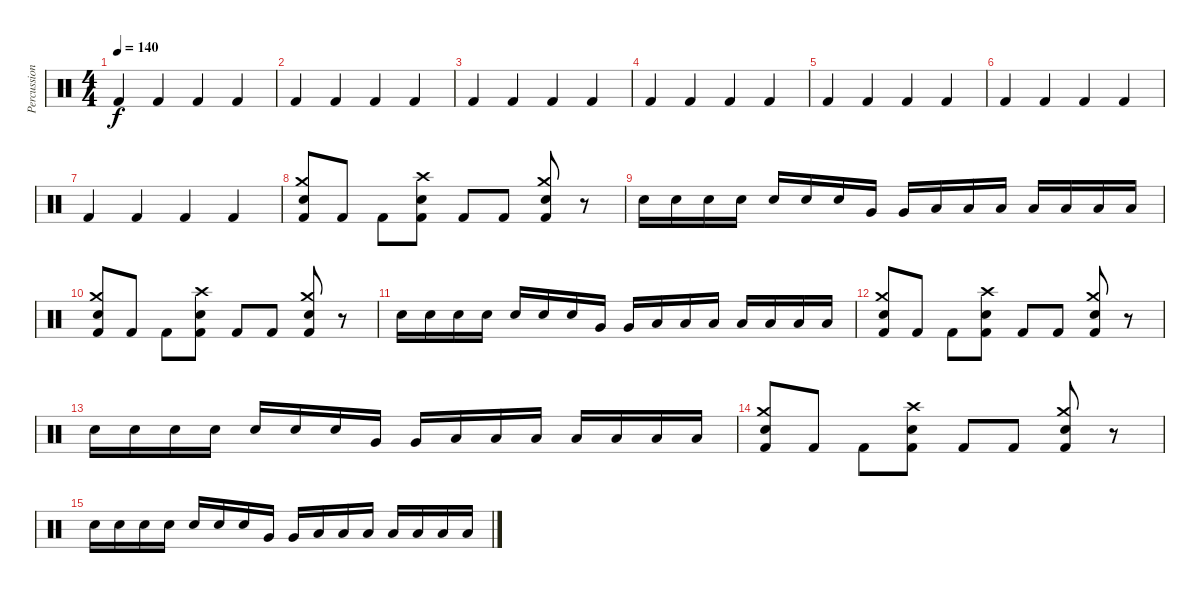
\track ("Percussion" "Percussion") {instrument percussion}
\staff {score}
\articulation defaults
\ts (4 4)
\tempo 140
\clef neutral
\ks c "Kick (hit) 2".4{dy f} "Kick (hit) 2".4 "Kick (hit) 2".4 "Kick (hit) 2".4
|
"Kick (hit) 2".4 "Kick (hit) 2".4 "Kick (hit) 2".4 "Kick (hit) 2".4 |
"Kick (hit) 2".4 "Kick (hit) 2".4 "Kick (hit) 2".4 "Kick (hit) 2".4 |
"Kick (hit) 2".4 "Kick (hit) 2".4 "Kick (hit) 2".4 "Kick (hit) 2".4 |
"Kick (hit) 2".4 "Kick (hit) 2".4 "Kick (hit) 2".4 "Kick (hit) 2".4 |
"Kick (hit) 2".4 "Kick (hit) 2".4 "Kick (hit) 2".4 "Kick (hit) 2".4 |
"Kick (hit) 2".4 "Kick (hit) 2".4 "Kick (hit) 2".4 "Kick (hit) 2".4 |
("Crash medium (hit)" "Snare (hit) 2" "Kick (hit) 2").8 "Kick (hit) 2".8 "Kick (hit) 2".8 ("Crash high (hit)" "Snare (hit) 2" "Kick (hit) 2").8 "Kick (hit) 2".8 "Kick (hit) 2".8 ("Crash medium (hit)" "Snare (hit) 2" "Kick (hit) 2").8 r.8 |
"Snare (hit) 2".16 "Snare (hit) 2".16 "Snare (hit) 2".16 "Snare (hit) 2".16 "Snare (hit) 2".16 "Snare (hit) 2".16 "Snare (hit) 2".16 "Very Low Tom (hit)".16 "Very Low Tom (hit)".16 "Low Tom (hit)".16 "Low Tom (hit)".16 "Low Floor Tom (hit)".16 "Low Floor Tom (hit)".16 "Low Floor Tom (hit)".16 "Low Floor Tom (hit)".16 "Low Floor Tom (hit)".16 |
("Crash medium (hit)" "Snare (hit) 2" "Kick (hit) 2").8 "Kick (hit) 2".8 "Kick (hit) 2".8 ("Crash high (hit)" "Snare (hit) 2" "Kick (hit) 2").8 "Kick (hit) 2".8 "Kick (hit) 2".8 ("Crash medium (hit)" "Snare (hit) 2" "Kick (hit) 2").8 r.8 |
"Snare (hit) 2".16 "Snare (hit) 2".16 "Snare (hit) 2".16 "Snare (hit) 2".16 "Snare (hit) 2".16 "Snare (hit) 2".16 "Snare (hit) 2".16 "Very Low Tom (hit)".16 "Very Low Tom (hit)".16 "Low Tom (hit)".16 "Low Tom (hit)".16 "Low Floor Tom (hit)".16 "Low Floor Tom (hit)".16 "Low Floor Tom (hit)".16 "Low Floor Tom (hit)".16 "Low Floor Tom (hit)".16 |
("Crash medium (hit)" "Snare (hit) 2" "Kick (hit) 2").8 "Kick (hit) 2".8 "Kick (hit) 2".8 ("Crash high (hit)" "Snare (hit) 2" "Kick (hit) 2").8 "Kick (hit) 2".8 "Kick (hit) 2".8 ("Crash medium (hit)" "Snare (hit) 2" "Kick (hit) 2").8 r.8 |
"Snare (hit) 2".16 "Snare (hit) 2".16 "Snare (hit) 2".16 "Snare (hit) 2".16 "Snare (hit) 2".16 "Snare (hit) 2".16 "Snare (hit) 2".16 "Very Low Tom (hit)".16 "Very Low Tom (hit)".16 "Low Tom (hit)".16 "Low Tom (hit)".16 "Low Floor Tom (hit)".16 "Low Floor Tom (hit)".16 "Low Floor Tom (hit)".16 "Low Floor Tom (hit)".16 "Low Floor Tom (hit)".16 |
("Crash medium (hit)" "Snare (hit) 2" "Kick (hit) 2").8 "Kick (hit) 2".8 "Kick (hit) 2".8 ("Crash high (hit)" "Snare (hit) 2" "Kick (hit) 2").8 "Kick (hit) 2".8 "Kick (hit) 2".8 ("Crash medium (hit)" "Snare (hit) 2" "Kick (hit) 2").8 r.8 |
"Snare (hit) 2".16 "Snare (hit) 2".16 "Snare (hit) 2".16 "Snare (hit) 2".16 "Snare (hit) 2".16 "Snare (hit) 2".16 "Snare (hit) 2".16 "Very Low Tom (hit)".16 "Very Low Tom (hit)".16 "Low Tom (hit)".16 "Low Tom (hit)".16 "Low Floor Tom (hit)".16 "Low Floor Tom (hit)".16 "Low Floor Tom (hit)".16 "Low Floor Tom (hit)".16 "Low Floor Tom (hit)".16
